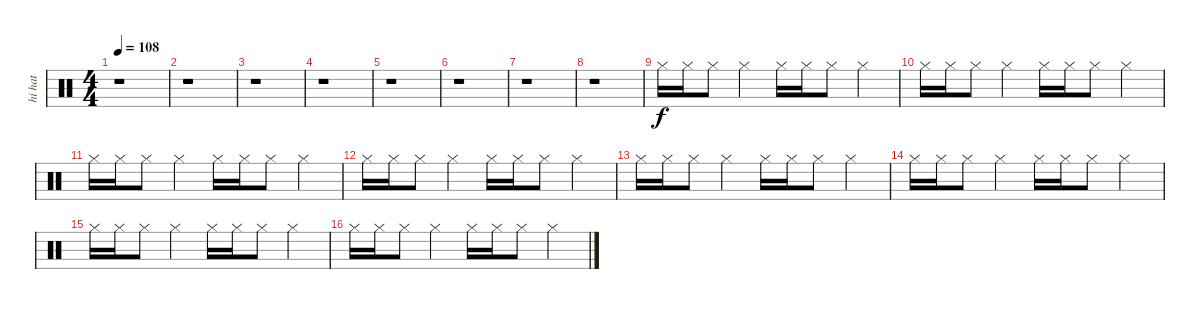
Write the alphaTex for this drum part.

\track ("hi hat              " "hi hat    ") {instrument percussion}
\staff {score}
\articulation defaults
\ts (4 4)
\tempo 108
\clef neutral
\ks c
r.1{dy f} |
r.1 |
r.1 |
r.1 |
r.1 |
r.1 |
r.1 |
r.1 |
"Hi-Hat (closed)".16 "Hi-Hat (closed)".16 "Hi-Hat (closed)".8 "Hi-Hat (closed)".4 "Hi-Hat (closed)".16 "Hi-Hat (closed)".16 "Hi-Hat (closed)".8 "Hi-Hat (closed)".4 |
"Hi-Hat (closed)".16 "Hi-Hat (closed)".16 "Hi-Hat (closed)".8 "Hi-Hat (closed)".4 "Hi-Hat (closed)".16 "Hi-Hat (closed)".16 "Hi-Hat (closed)".8 "Hi-Hat (closed)".4 |
"Hi-Hat (closed)".16 "Hi-Hat (closed)".16 "Hi-Hat (closed)".8 "Hi-Hat (closed)".4 "Hi-Hat (closed)".16 "Hi-Hat (closed)".16 "Hi-Hat (closed)".8 "Hi-Hat (closed)".4 |
"Hi-Hat (closed)".16 "Hi-Hat (closed)".16 "Hi-Hat (closed)".8 "Hi-Hat (closed)".4 "Hi-Hat (closed)".16 "Hi-Hat (closed)".16 "Hi-Hat (closed)".8 "Hi-Hat (closed)".4 |
"Hi-Hat (closed)".16 "Hi-Hat (closed)".16 "Hi-Hat (closed)".8 "Hi-Hat (closed)".4 "Hi-Hat (closed)".16 "Hi-Hat (closed)".16 "Hi-Hat (closed)".8 "Hi-Hat (closed)".4 |
"Hi-Hat (closed)".16 "Hi-Hat (closed)".16 "Hi-Hat (closed)".8 "Hi-Hat (closed)".4 "Hi-Hat (closed)".16 "Hi-Hat (closed)".16 "Hi-Hat (closed)".8 "Hi-Hat (closed)".4 |
"Hi-Hat (closed)".16 "Hi-Hat (closed)".16 "Hi-Hat (closed)".8 "Hi-Hat (closed)".4 "Hi-Hat (closed)".16 "Hi-Hat (closed)".16 "Hi-Hat (closed)".8 "Hi-Hat (closed)".4 |
"Hi-Hat (closed)".16 "Hi-Hat (closed)".16 "Hi-Hat (closed)".8 "Hi-Hat (closed)".4 "Hi-Hat (closed)".16 "Hi-Hat (closed)".16 "Hi-Hat (closed)".8 "Hi-Hat (closed)".4
